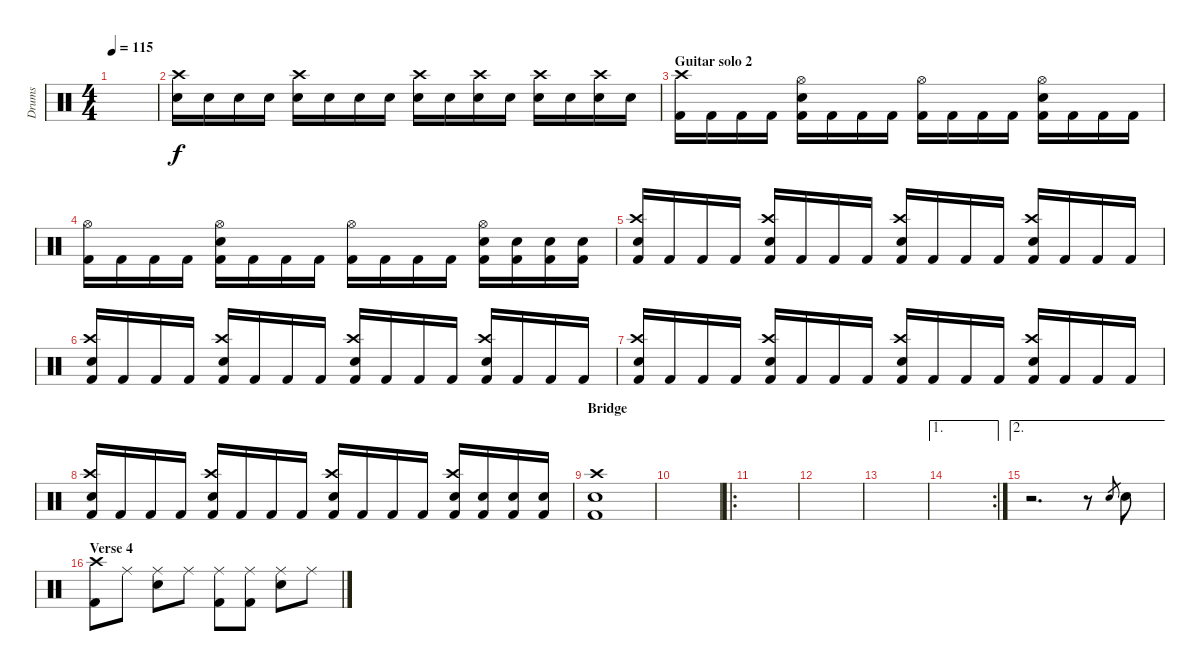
\track ("Drums" "Drums") {instrument percussion}
\staff {score}
\articulation defaults
\ts (4 4)
\tempo 115
\clef neutral
\ks c
|
("Electric Snare (hit)" "Crash high (hit)").16 "Electric Snare (hit)".16 "Electric Snare (hit)".16 "Electric Snare (hit)".16 ("Electric Snare (hit)" "Crash high (hit)").16 "Electric Snare (hit)".16 "Electric Snare (hit)".16 "Electric Snare (hit)".16 ("Electric Snare (hit)" "Crash high (hit)").16 "Electric Snare (hit)".16 ("Electric Snare (hit)" "Crash high (hit)").16 "Electric Snare (hit)".16 ("Electric Snare (hit)" "Crash high (hit)").16 "Electric Snare (hit)".16 ("Electric Snare (hit)" "Crash high (hit)").16 "Electric Snare (hit)".16 |
\section ("" "Guitar solo 2")
("Kick (hit) 2" "Crash high (hit)").16 "Kick (hit) 2".16 "Kick (hit) 2".16 "Kick (hit) 2".16 ("Kick (hit) 2" "Electric Snare (hit)" "Hi-Hat (open)").16 "Kick (hit) 2".16 "Kick (hit) 2".16 "Kick (hit) 2".16 ("Kick (hit) 2" "Hi-Hat (open)").16 "Kick (hit) 2".16 "Kick (hit) 2".16 "Kick (hit) 2".16 ("Kick (hit) 2" "Electric Snare (hit)" "Hi-Hat (open)").16 "Kick (hit) 2".16 "Kick (hit) 2".16 "Kick (hit) 2".16 |
("Kick (hit) 2" "Hi-Hat (open)").16 "Kick (hit) 2".16 "Kick (hit) 2".16 "Kick (hit) 2".16 ("Kick (hit) 2" "Electric Snare (hit)" "Hi-Hat (open)").16 "Kick (hit) 2".16 "Kick (hit) 2".16 "Kick (hit) 2".16 ("Kick (hit) 2" "Hi-Hat (open)").16 "Kick (hit) 2".16 "Kick (hit) 2".16 "Kick (hit) 2".16 ("Kick (hit) 2" "Electric Snare (hit)" "Hi-Hat (open)").16 ("Kick (hit) 2" "Electric Snare (hit)").16 ("Kick (hit) 2" "Electric Snare (hit)").16 ("Kick (hit) 2" "Electric Snare (hit)").16 |
("Kick (hit) 2" "Electric Snare (hit)" "Crash high (hit)").16 "Kick (hit) 2".16 "Kick (hit) 2".16 "Kick (hit) 2".16 ("Kick (hit) 2" "Electric Snare (hit)" "Crash high (hit)").16 "Kick (hit) 2".16 "Kick (hit) 2".16 "Kick (hit) 2".16 ("Kick (hit) 2" "Electric Snare (hit)" "Crash high (hit)").16 "Kick (hit) 2".16 "Kick (hit) 2".16 "Kick (hit) 2".16 ("Kick (hit) 2" "Electric Snare (hit)" "Crash high (hit)").16 "Kick (hit) 2".16 "Kick (hit) 2".16 "Kick (hit) 2".16 |
("Kick (hit) 2" "Electric Snare (hit)" "Crash high (hit)").16 "Kick (hit) 2".16 "Kick (hit) 2".16 "Kick (hit) 2".16 ("Kick (hit) 2" "Electric Snare (hit)" "Crash high (hit)").16 "Kick (hit) 2".16 "Kick (hit) 2".16 "Kick (hit) 2".16 ("Kick (hit) 2" "Electric Snare (hit)" "Crash high (hit)").16 "Kick (hit) 2".16 "Kick (hit) 2".16 "Kick (hit) 2".16 ("Kick (hit) 2" "Electric Snare (hit)" "Crash high (hit)").16 "Kick (hit) 2".16 "Kick (hit) 2".16 "Kick (hit) 2".16 |
("Kick (hit) 2" "Electric Snare (hit)" "Crash high (hit)").16 "Kick (hit) 2".16 "Kick (hit) 2".16 "Kick (hit) 2".16 ("Kick (hit) 2" "Electric Snare (hit)" "Crash high (hit)").16 "Kick (hit) 2".16 "Kick (hit) 2".16 "Kick (hit) 2".16 ("Kick (hit) 2" "Electric Snare (hit)" "Crash high (hit)").16 "Kick (hit) 2".16 "Kick (hit) 2".16 "Kick (hit) 2".16 ("Kick (hit) 2" "Electric Snare (hit)" "Crash high (hit)").16 "Kick (hit) 2".16 "Kick (hit) 2".16 "Kick (hit) 2".16 |
("Kick (hit) 2" "Electric Snare (hit)" "Crash high (hit)").16 "Kick (hit) 2".16 "Kick (hit) 2".16 "Kick (hit) 2".16 ("Kick (hit) 2" "Electric Snare (hit)" "Crash high (hit)").16 "Kick (hit) 2".16 "Kick (hit) 2".16 "Kick (hit) 2".16 ("Kick (hit) 2" "Electric Snare (hit)" "Crash high (hit)").16 "Kick (hit) 2".16 "Kick (hit) 2".16 "Kick (hit) 2".16 ("Kick (hit) 2" "Electric Snare (hit)" "Crash high (hit)").16 ("Kick (hit) 2" "Electric Snare (hit)").16 ("Kick (hit) 2" "Electric Snare (hit)").16 ("Kick (hit) 2" "Electric Snare (hit)").16 |
\section ("" "Bridge")
("Crash high (hit)" "Kick (hit) 2" "Electric Snare (hit)").1 |
|
\ro
|
|
|
\ae 1
\rc 2
|
\ae 2
r.2{d} r.8 "Electric Snare (hit)".8{gr} "Electric Snare (hit)".8 |
\section ("" "Verse 4")
("Crash high (hit)" "Kick (hit) 2").8 "Ride (middle)".8 ("Ride (middle)" "Electric Snare (hit)").8 "Ride (middle)".8 ("Ride (middle)" "Kick (hit) 2").8 ("Ride (middle)" "Kick (hit) 2").8 ("Ride (middle)" "Electric Snare (hit)").8 "Ride (middle)".8
